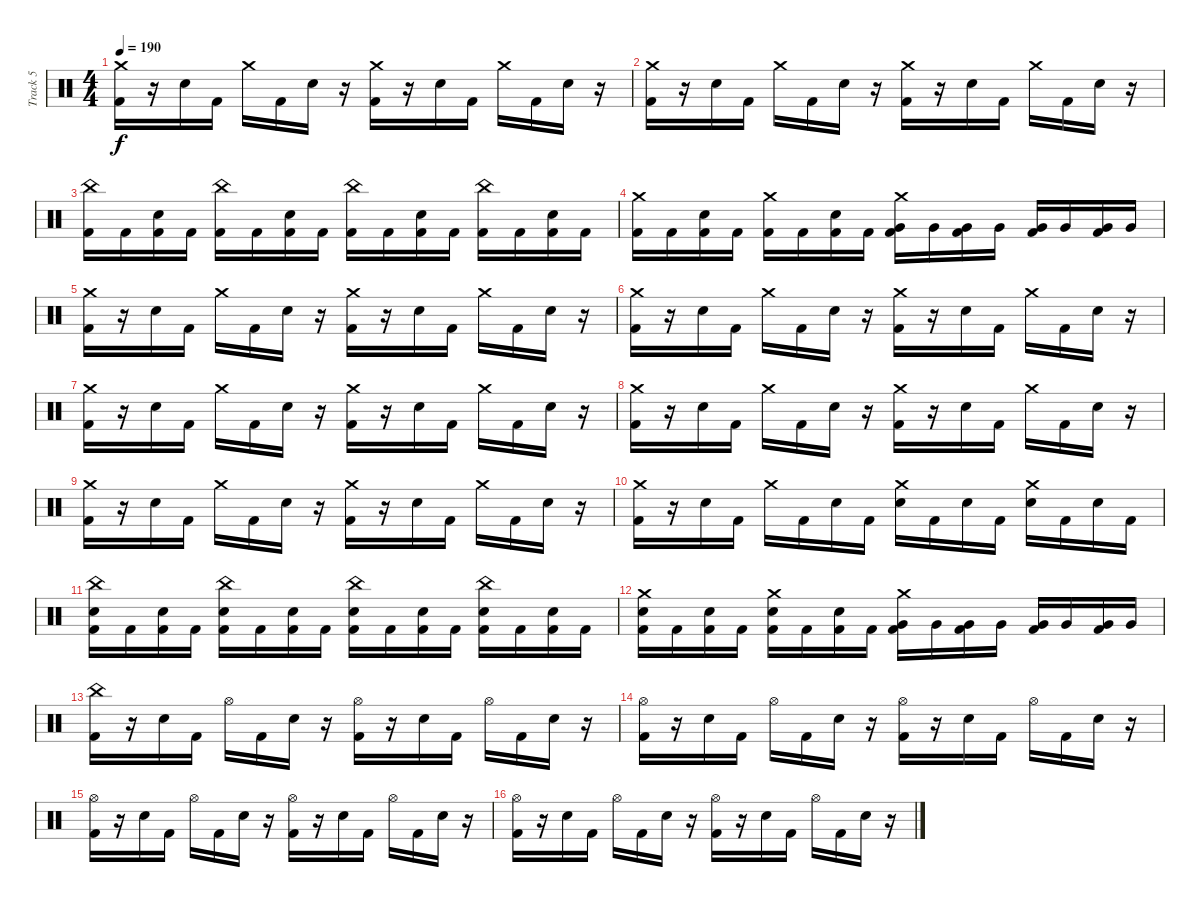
\track ("Track 5" "Track 5") {instrument percussion}
\staff {score}
\articulation defaults
\ts (4 4)
\tempo 190
\clef neutral
\ks c
("Crash medium (hit)" "Kick (hit) 2").16{dy f} r.16 "Electric Snare (hit)".16 "Kick (hit) 2".16 "Crash medium (hit)".16 "Kick (hit) 2".16 "Electric Snare (hit)".16 r.16 ("Crash medium (hit)" "Kick (hit) 2").16 r.16 "Electric Snare (hit)".16 "Kick (hit) 2".16 "Crash medium (hit)".16 "Kick (hit) 2".16 "Electric Snare (hit)".16 r.16 |
("Crash medium (hit)" "Kick (hit) 2").16 r.16 "Electric Snare (hit)".16 "Kick (hit) 2".16 "Crash medium (hit)".16 "Kick (hit) 2".16 "Electric Snare (hit)".16 r.16 ("Crash medium (hit)" "Kick (hit) 2").16 r.16 "Electric Snare (hit)".16 "Kick (hit) 2".16 "Crash medium (hit)".16 "Kick (hit) 2".16 "Electric Snare (hit)".16 r.16 |
("China (hit)" "Kick (hit) 2").16 "Kick (hit) 2".16 ("Electric Snare (hit)" "Kick (hit) 2").16 "Kick (hit) 2".16 ("China (hit)" "Kick (hit) 2").16 "Kick (hit) 2".16 ("Electric Snare (hit)" "Kick (hit) 2").16 "Kick (hit) 2".16 ("China (hit)" "Kick (hit) 2").16 "Kick (hit) 2".16 ("Electric Snare (hit)" "Kick (hit) 2").16 "Kick (hit) 2".16 ("China (hit)" "Kick (hit) 2").16 "Kick (hit) 2".16 ("Electric Snare (hit)" "Kick (hit) 2").16 "Kick (hit) 2".16 |
("Crash medium (hit)" "Kick (hit) 2").16 "Kick (hit) 2".16 ("Electric Snare (hit)" "Kick (hit) 2").16 "Kick (hit) 2".16 ("Crash medium (hit)" "Kick (hit) 2").16 "Kick (hit) 2".16 ("Electric Snare (hit)" "Kick (hit) 2").16 "Kick (hit) 2".16 ("Crash medium (hit)" "Very Low Tom (hit)" "Kick (hit) 2").16 "Very Low Tom (hit)".16 ("Very Low Tom (hit)" "Kick (hit) 2").16 "Very Low Tom (hit)".16 ("Very Low Tom (hit)" "Kick (hit) 2").16 "Very Low Tom (hit)".16 ("Very Low Tom (hit)" "Kick (hit) 2").16 "Very Low Tom (hit)".16 |
("Crash medium (hit)" "Kick (hit) 2").16 r.16 "Electric Snare (hit)".16 "Kick (hit) 2".16 "Crash medium (hit)".16 "Kick (hit) 2".16 "Electric Snare (hit)".16 r.16 ("Crash medium (hit)" "Kick (hit) 2").16 r.16 "Electric Snare (hit)".16 "Kick (hit) 2".16 "Crash medium (hit)".16 "Kick (hit) 2".16 "Electric Snare (hit)".16 r.16 |
("Crash medium (hit)" "Kick (hit) 2").16 r.16 "Electric Snare (hit)".16 "Kick (hit) 2".16 "Crash medium (hit)".16 "Kick (hit) 2".16 "Electric Snare (hit)".16 r.16 ("Crash medium (hit)" "Kick (hit) 2").16 r.16 "Electric Snare (hit)".16 "Kick (hit) 2".16 "Crash medium (hit)".16 "Kick (hit) 2".16 "Electric Snare (hit)".16 r.16 |
("Crash medium (hit)" "Kick (hit) 2").16 r.16 "Electric Snare (hit)".16 "Kick (hit) 2".16 "Crash medium (hit)".16 "Kick (hit) 2".16 "Electric Snare (hit)".16 r.16 ("Crash medium (hit)" "Kick (hit) 2").16 r.16 "Electric Snare (hit)".16 "Kick (hit) 2".16 "Crash medium (hit)".16 "Kick (hit) 2".16 "Electric Snare (hit)".16 r.16 |
("Crash medium (hit)" "Kick (hit) 2").16 r.16 "Electric Snare (hit)".16 "Kick (hit) 2".16 "Crash medium (hit)".16 "Kick (hit) 2".16 "Electric Snare (hit)".16 r.16 ("Crash medium (hit)" "Kick (hit) 2").16 r.16 "Electric Snare (hit)".16 "Kick (hit) 2".16 "Crash medium (hit)".16 "Kick (hit) 2".16 "Electric Snare (hit)".16 r.16 |
("Crash medium (hit)" "Kick (hit) 2").16 r.16 "Electric Snare (hit)".16 "Kick (hit) 2".16 "Crash medium (hit)".16 "Kick (hit) 2".16 "Electric Snare (hit)".16 r.16 ("Crash medium (hit)" "Kick (hit) 2").16 r.16 "Electric Snare (hit)".16 "Kick (hit) 2".16 "Crash medium (hit)".16 "Kick (hit) 2".16 "Electric Snare (hit)".16 r.16 |
("Crash medium (hit)" "Kick (hit) 2").16 r.16 "Electric Snare (hit)".16 "Kick (hit) 2".16 "Crash medium (hit)".16 "Kick (hit) 2".16 "Electric Snare (hit)".16 "Kick (hit) 2".16 ("Crash medium (hit)" "Electric Snare (hit)").16 "Kick (hit) 2".16 "Electric Snare (hit)".16 "Kick (hit) 2".16 ("Crash medium (hit)" "Electric Snare (hit)").16 "Kick (hit) 2".16 "Electric Snare (hit)".16 "Kick (hit) 2".16 |
("China (hit)" "Electric Snare (hit)" "Kick (hit) 2").16 "Kick (hit) 2".16 ("Electric Snare (hit)" "Kick (hit) 2").16 "Kick (hit) 2".16 ("China (hit)" "Electric Snare (hit)" "Kick (hit) 2").16 "Kick (hit) 2".16 ("Electric Snare (hit)" "Kick (hit) 2").16 "Kick (hit) 2".16 ("China (hit)" "Electric Snare (hit)" "Kick (hit) 2").16 "Kick (hit) 2".16 ("Electric Snare (hit)" "Kick (hit) 2").16 "Kick (hit) 2".16 ("China (hit)" "Electric Snare (hit)" "Kick (hit) 2").16 "Kick (hit) 2".16 ("Electric Snare (hit)" "Kick (hit) 2").16 "Kick (hit) 2".16 |
("Crash medium (hit)" "Electric Snare (hit)" "Kick (hit) 2").16 "Kick (hit) 2".16 ("Electric Snare (hit)" "Kick (hit) 2").16 "Kick (hit) 2".16 ("Crash medium (hit)" "Electric Snare (hit)" "Kick (hit) 2").16 "Kick (hit) 2".16 ("Electric Snare (hit)" "Kick (hit) 2").16 "Kick (hit) 2".16 ("Crash medium (hit)" "Very Low Tom (hit)" "Kick (hit) 2").16 "Very Low Tom (hit)".16 ("Very Low Tom (hit)" "Kick (hit) 2").16 "Very Low Tom (hit)".16 ("Very Low Tom (hit)" "Kick (hit) 2").16 "Very Low Tom (hit)".16 ("Very Low Tom (hit)" "Kick (hit) 2").16 "Very Low Tom (hit)".16 |
("China (hit)" "Kick (hit) 2").16 r.16 "Electric Snare (hit)".16 "Kick (hit) 2".16 "Hi-Hat (open)".16 "Kick (hit) 2".16 "Electric Snare (hit)".16 r.16 ("Hi-Hat (open)" "Kick (hit) 2").16 r.16 "Electric Snare (hit)".16 "Kick (hit) 2".16 "Hi-Hat (open)".16 "Kick (hit) 2".16 "Electric Snare (hit)".16 r.16 |
("Hi-Hat (open)" "Kick (hit) 2").16 r.16 "Electric Snare (hit)".16 "Kick (hit) 2".16 "Hi-Hat (open)".16 "Kick (hit) 2".16 "Electric Snare (hit)".16 r.16 ("Hi-Hat (open)" "Kick (hit) 2").16 r.16 "Electric Snare (hit)".16 "Kick (hit) 2".16 "Hi-Hat (open)".16 "Kick (hit) 2".16 "Electric Snare (hit)".16 r.16 |
("Hi-Hat (open)" "Kick (hit) 2").16 r.16 "Electric Snare (hit)".16 "Kick (hit) 2".16 "Hi-Hat (open)".16 "Kick (hit) 2".16 "Electric Snare (hit)".16 r.16 ("Hi-Hat (open)" "Kick (hit) 2").16 r.16 "Electric Snare (hit)".16 "Kick (hit) 2".16 "Hi-Hat (open)".16 "Kick (hit) 2".16 "Electric Snare (hit)".16 r.16 |
("Hi-Hat (open)" "Kick (hit) 2").16 r.16 "Electric Snare (hit)".16 "Kick (hit) 2".16 "Hi-Hat (open)".16 "Kick (hit) 2".16 "Electric Snare (hit)".16 r.16 ("Hi-Hat (open)" "Kick (hit) 2").16 r.16 "Electric Snare (hit)".16 "Kick (hit) 2".16 "Hi-Hat (open)".16 "Kick (hit) 2".16 "Electric Snare (hit)".16 r.16
